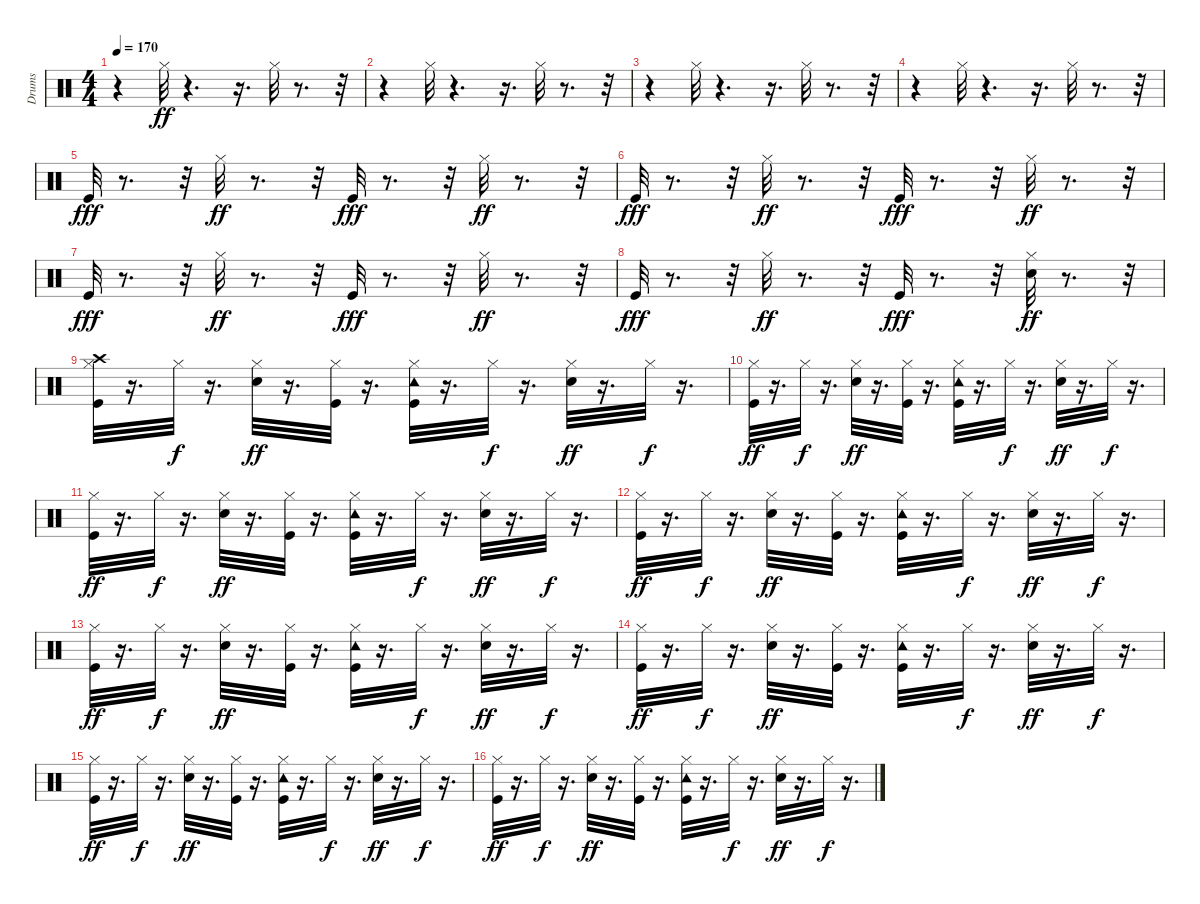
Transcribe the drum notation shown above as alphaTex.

\track ("Drums" "Drums") {instrument percussion}
\staff {score}
\articulation defaults
\ts (4 4)
\tempo 170
\clef neutral
\ks c
r.4{dy ff} "Hi-Hat (closed)".32 r.4{d} r.16{d} "Hi-Hat (closed)".32 r.8{d} r.32 |
r.4 "Hi-Hat (closed)".32 r.4{d} r.16{d} "Hi-Hat (closed)".32 r.8{d} r.32 |
r.4 "Hi-Hat (closed)".32 r.4{d} r.16{d} "Hi-Hat (closed)".32 r.8{d} r.32 |
r.4 "Hi-Hat (closed)".32 r.4{d} r.16{d} "Hi-Hat (closed)".32 r.8{d} r.32 |
"Kick (hit)".32{dy fff} r.8{d} r.32 "Hi-Hat (closed)".32{dy ff} r.8{d} r.32 "Kick (hit)".32{dy fff} r.8{d} r.32 "Hi-Hat (closed)".32{dy ff} r.8{d} r.32 |
"Kick (hit)".32{dy fff} r.8{d} r.32 "Hi-Hat (closed)".32{dy ff} r.8{d} r.32 "Kick (hit)".32{dy fff} r.8{d} r.32 "Hi-Hat (closed)".32{dy ff} r.8{d} r.32 |
"Kick (hit)".32{dy fff} r.8{d} r.32 "Hi-Hat (closed)".32{dy ff} r.8{d} r.32 "Kick (hit)".32{dy fff} r.8{d} r.32 "Hi-Hat (closed)".32{dy ff} r.8{d} r.32 |
"Kick (hit)".32{dy fff} r.8{d} r.32 "Hi-Hat (closed)".32{dy ff} r.8{d} r.32 "Kick (hit)".32{dy fff} r.8{d} r.32 ("Snare (hit) 2" "Hi-Hat (closed)").32{dy ff} r.8{d} r.32 |
("Kick (hit)" "Crash high (hit)" "Hi-Hat (closed)").32 r.16{d} "Hi-Hat (closed)".32{dy f} r.16{d} ("Snare (hit) 2" "Hi-Hat (closed)").32{dy ff} r.16{d} ("Hi-Hat (closed)" "Kick (hit)").32 r.16{d} ("Kick (hit)" "Tambourine (hit)" "Hi-Hat (closed)").32 r.16{d} "Hi-Hat (closed)".32{dy f} r.16{d} ("Snare (hit) 2" "Hi-Hat (closed)").32{dy ff} r.16{d} "Hi-Hat (closed)".32{dy f} r.16{d} |
("Kick (hit)" "Hi-Hat (closed)").32{dy ff} r.16{d} "Hi-Hat (closed)".32{dy f} r.16{d} ("Snare (hit) 2" "Hi-Hat (closed)").32{dy ff} r.16{d} ("Hi-Hat (closed)" "Kick (hit)").32 r.16{d} ("Kick (hit)" "Tambourine (hit)" "Hi-Hat (closed)").32 r.16{d} "Hi-Hat (closed)".32{dy f} r.16{d} ("Snare (hit) 2" "Hi-Hat (closed)").32{dy ff} r.16{d} "Hi-Hat (closed)".32{dy f} r.16{d} |
("Kick (hit)" "Hi-Hat (closed)").32{dy ff} r.16{d} "Hi-Hat (closed)".32{dy f} r.16{d} ("Snare (hit) 2" "Hi-Hat (closed)").32{dy ff} r.16{d} ("Hi-Hat (closed)" "Kick (hit)").32 r.16{d} ("Kick (hit)" "Tambourine (hit)" "Hi-Hat (closed)").32 r.16{d} "Hi-Hat (closed)".32{dy f} r.16{d} ("Snare (hit) 2" "Hi-Hat (closed)").32{dy ff} r.16{d} "Hi-Hat (closed)".32{dy f} r.16{d} |
("Kick (hit)" "Hi-Hat (closed)").32{dy ff} r.16{d} "Hi-Hat (closed)".32{dy f} r.16{d} ("Snare (hit) 2" "Hi-Hat (closed)").32{dy ff} r.16{d} ("Hi-Hat (closed)" "Kick (hit)").32 r.16{d} ("Kick (hit)" "Tambourine (hit)" "Hi-Hat (closed)").32 r.16{d} "Hi-Hat (closed)".32{dy f} r.16{d} ("Snare (hit) 2" "Hi-Hat (closed)").32{dy ff} r.16{d} "Hi-Hat (closed)".32{dy f} r.16{d} |
("Kick (hit)" "Hi-Hat (closed)").32{dy ff} r.16{d} "Hi-Hat (closed)".32{dy f} r.16{d} ("Snare (hit) 2" "Hi-Hat (closed)").32{dy ff} r.16{d} ("Hi-Hat (closed)" "Kick (hit)").32 r.16{d} ("Kick (hit)" "Tambourine (hit)" "Hi-Hat (closed)").32 r.16{d} "Hi-Hat (closed)".32{dy f} r.16{d} ("Snare (hit) 2" "Hi-Hat (closed)").32{dy ff} r.16{d} "Hi-Hat (closed)".32{dy f} r.16{d} |
("Kick (hit)" "Hi-Hat (closed)").32{dy ff} r.16{d} "Hi-Hat (closed)".32{dy f} r.16{d} ("Snare (hit) 2" "Hi-Hat (closed)").32{dy ff} r.16{d} ("Hi-Hat (closed)" "Kick (hit)").32 r.16{d} ("Kick (hit)" "Tambourine (hit)" "Hi-Hat (closed)").32 r.16{d} "Hi-Hat (closed)".32{dy f} r.16{d} ("Snare (hit) 2" "Hi-Hat (closed)").32{dy ff} r.16{d} "Hi-Hat (closed)".32{dy f} r.16{d} |
("Kick (hit)" "Hi-Hat (closed)").32{dy ff} r.16{d} "Hi-Hat (closed)".32{dy f} r.16{d} ("Snare (hit) 2" "Hi-Hat (closed)").32{dy ff} r.16{d} ("Hi-Hat (closed)" "Kick (hit)").32 r.16{d} ("Kick (hit)" "Tambourine (hit)" "Hi-Hat (closed)").32 r.16{d} "Hi-Hat (closed)".32{dy f} r.16{d} ("Snare (hit) 2" "Hi-Hat (closed)").32{dy ff} r.16{d} "Hi-Hat (closed)".32{dy f} r.16{d} |
("Kick (hit)" "Hi-Hat (closed)").32{dy ff} r.16{d} "Hi-Hat (closed)".32{dy f} r.16{d} ("Snare (hit) 2" "Hi-Hat (closed)").32{dy ff} r.16{d} ("Hi-Hat (closed)" "Kick (hit)").32 r.16{d} ("Kick (hit)" "Tambourine (hit)" "Hi-Hat (closed)").32 r.16{d} "Hi-Hat (closed)".32{dy f} r.16{d} ("Snare (hit) 2" "Hi-Hat (closed)").32{dy ff} r.16{d} "Hi-Hat (closed)".32{dy f} r.16{d}
